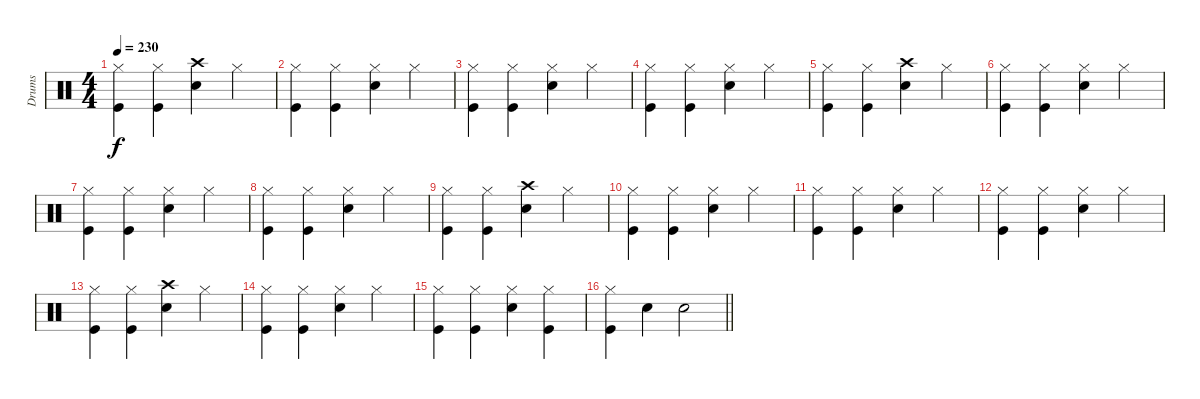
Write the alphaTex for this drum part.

\track ("Drums" "Drums") {instrument percussion}
\staff {score}
\articulation defaults
\ts (4 4)
\tempo 230
\clef neutral
\ks c
("Hi-Hat (closed)" "Kick (hit)").4{dy f} ("Hi-Hat (closed)" "Kick (hit)").4 ("Crash high (hit)" "Snare (hit) 2").4 "Hi-Hat (closed)".4 |
("Hi-Hat (closed)" "Kick (hit)").4 ("Hi-Hat (closed)" "Kick (hit)").4 ("Hi-Hat (closed)" "Snare (hit) 2").4 "Hi-Hat (closed)".4 |
("Hi-Hat (closed)" "Kick (hit)").4 ("Hi-Hat (closed)" "Kick (hit)").4 ("Hi-Hat (closed)" "Snare (hit) 2").4 "Hi-Hat (closed)".4 |
("Hi-Hat (closed)" "Kick (hit)").4 ("Hi-Hat (closed)" "Kick (hit)").4 ("Hi-Hat (closed)" "Snare (hit) 2").4 "Hi-Hat (closed)".4 |
("Hi-Hat (closed)" "Kick (hit)").4 ("Hi-Hat (closed)" "Kick (hit)").4 ("Crash high (hit)" "Snare (hit) 2").4 "Hi-Hat (closed)".4 |
("Hi-Hat (closed)" "Kick (hit)").4 ("Hi-Hat (closed)" "Kick (hit)").4 ("Hi-Hat (closed)" "Snare (hit) 2").4 "Hi-Hat (closed)".4 |
("Hi-Hat (closed)" "Kick (hit)").4 ("Hi-Hat (closed)" "Kick (hit)").4 ("Hi-Hat (closed)" "Snare (hit) 2").4 "Hi-Hat (closed)".4 |
("Hi-Hat (closed)" "Kick (hit)").4 ("Hi-Hat (closed)" "Kick (hit)").4 ("Hi-Hat (closed)" "Snare (hit) 2").4 "Hi-Hat (closed)".4 |
("Hi-Hat (closed)" "Kick (hit)").4 ("Hi-Hat (closed)" "Kick (hit)").4 ("Crash high (hit)" "Snare (hit) 2").4 "Hi-Hat (closed)".4 |
("Hi-Hat (closed)" "Kick (hit)").4 ("Hi-Hat (closed)" "Kick (hit)").4 ("Hi-Hat (closed)" "Snare (hit) 2").4 "Hi-Hat (closed)".4 |
("Hi-Hat (closed)" "Kick (hit)").4 ("Hi-Hat (closed)" "Kick (hit)").4 ("Hi-Hat (closed)" "Snare (hit) 2").4 "Hi-Hat (closed)".4 |
("Hi-Hat (closed)" "Kick (hit)").4 ("Hi-Hat (closed)" "Kick (hit)").4 ("Hi-Hat (closed)" "Snare (hit) 2").4 "Hi-Hat (closed)".4 |
("Hi-Hat (closed)" "Kick (hit)").4 ("Hi-Hat (closed)" "Kick (hit)").4 ("Crash high (hit)" "Snare (hit) 2").4 "Hi-Hat (closed)".4 |
("Hi-Hat (closed)" "Kick (hit)").4 ("Hi-Hat (closed)" "Kick (hit)").4 ("Hi-Hat (closed)" "Snare (hit) 2").4 "Hi-Hat (closed)".4 |
("Hi-Hat (closed)" "Kick (hit)").4 ("Hi-Hat (closed)" "Kick (hit)").4 ("Hi-Hat (closed)" "Snare (hit) 2").4 ("Hi-Hat (closed)" "Kick (hit)").4 |
\barLineRight lightlight
("Hi-Hat (closed)" "Kick (hit)").4 "Snare (hit) 2".4 "Snare (hit) 2".2
